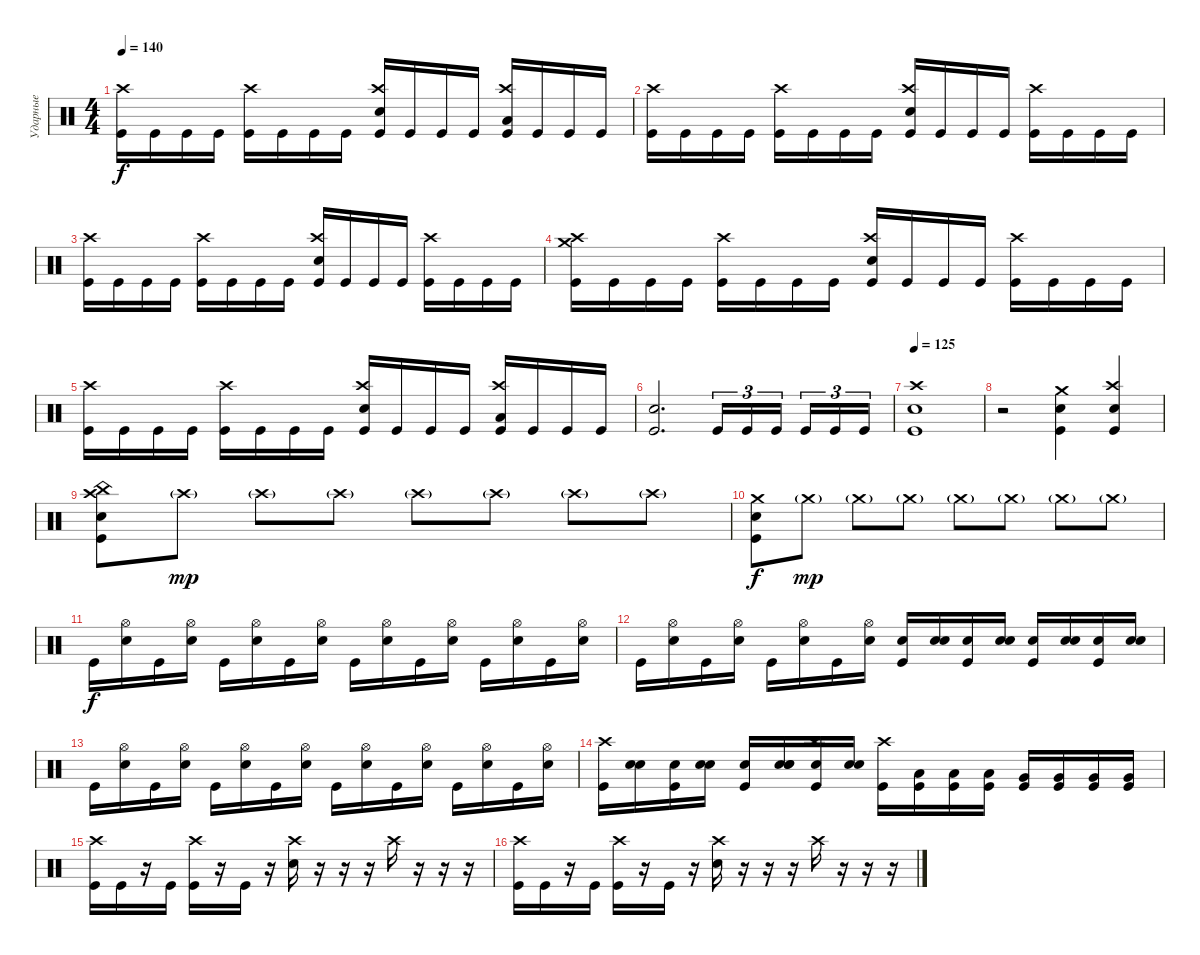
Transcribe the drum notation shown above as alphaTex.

\track ("Ударные" "Ударные") {instrument percussion}
\staff {score}
\articulation defaults
\ts (4 4)
\tempo 140
\clef neutral
\ks c
("Kick (hit)" "Crash high (hit)").16{dy f} "Kick (hit)".16 "Kick (hit)".16 "Kick (hit)".16 ("Kick (hit)" "Crash high (hit)").16 "Kick (hit)".16 "Kick (hit)".16 "Kick (hit)".16 ("Kick (hit)" "Snare (hit) 2" "Crash high (hit)").16 "Kick (hit)".16 "Kick (hit)".16 "Kick (hit)".16 ("Kick (hit)" "Crash high (hit)" "Low Tom (hit)").16 "Kick (hit)".16 "Kick (hit)".16 "Kick (hit)".16 |
("Kick (hit)" "Crash high (hit)").16 "Kick (hit)".16 "Kick (hit)".16 "Kick (hit)".16 ("Kick (hit)" "Crash high (hit)").16 "Kick (hit)".16 "Kick (hit)".16 "Kick (hit)".16 ("Kick (hit)" "Snare (hit) 2" "Crash high (hit)").16 "Kick (hit)".16 "Kick (hit)".16 "Kick (hit)".16 ("Kick (hit)" "Crash high (hit)").16 "Kick (hit)".16 "Kick (hit)".16 "Kick (hit)".16 |
("Kick (hit)" "Crash high (hit)").16 "Kick (hit)".16 "Kick (hit)".16 "Kick (hit)".16 ("Kick (hit)" "Crash high (hit)").16 "Kick (hit)".16 "Kick (hit)".16 "Kick (hit)".16 ("Kick (hit)" "Snare (hit) 2" "Crash high (hit)").16 "Kick (hit)".16 "Kick (hit)".16 "Kick (hit)".16 ("Kick (hit)" "Crash high (hit)").16 "Kick (hit)".16 "Kick (hit)".16 "Kick (hit)".16 |
("Kick (hit)" "Crash medium (hit)" "Crash high (hit)").16 "Kick (hit)".16 "Kick (hit)".16 "Kick (hit)".16 ("Kick (hit)" "Crash high (hit)").16 "Kick (hit)".16 "Kick (hit)".16 "Kick (hit)".16 ("Kick (hit)" "Snare (hit) 2" "Crash high (hit)").16 "Kick (hit)".16 "Kick (hit)".16 "Kick (hit)".16 ("Kick (hit)" "Crash high (hit)").16 "Kick (hit)".16 "Kick (hit)".16 "Kick (hit)".16 |
("Kick (hit)" "Crash high (hit)").16 "Kick (hit)".16 "Kick (hit)".16 "Kick (hit)".16 ("Kick (hit)" "Crash high (hit)").16 "Kick (hit)".16 "Kick (hit)".16 "Kick (hit)".16 ("Kick (hit)" "Snare (hit) 2" "Crash high (hit)").16 "Kick (hit)".16 "Kick (hit)".16 "Kick (hit)".16 ("Kick (hit)" "Crash high (hit)" "Low Tom (hit)").16 "Kick (hit)".16 "Kick (hit)".16 "Kick (hit)".16 |
("Kick (hit)" "Snare (hit) 2").2{d} "Kick (hit)".16{tu (3 2)} "Kick (hit)".16{tu (3 2)} "Kick (hit)".16{tu (3 2) beam splitsecondary} "Kick (hit)".16{tu (3 2)} "Kick (hit)".16{tu (3 2)} "Kick (hit)".16{tu (3 2)} |
\tempo 125
("Snare (hit) 2" "Kick (hit)" "Crash high (hit)").1 |
r.2 ("Kick (hit)" "Snare (hit) 2" "Crash medium (hit)").4 ("Kick (hit)" "Snare (hit) 2" "Crash high (hit)").4 |
("Crash high (hit)" "Kick (hit)" "China (hit)" "Snare (hit) 2").8 "Crash high (hit)"{g}.8{dy mp} "Crash high (hit)"{g}.8 "Crash high (hit)"{g}.8 "Crash high (hit)"{g}.8 "Crash high (hit)"{g}.8 "Crash high (hit)"{g}.8 "Crash high (hit)"{g}.8 |
("Kick (hit)" "Snare (hit) 2" "Crash medium (hit)").8{dy f} "Crash medium (hit)"{g}.8{dy mp} "Crash medium (hit)"{g}.8 "Crash medium (hit)"{g}.8 "Crash medium (hit)"{g}.8 "Crash medium (hit)"{g}.8 "Crash medium (hit)"{g}.8 "Crash medium (hit)"{g}.8 |
"Kick (hit)".16{dy f} ("Snare (hit) 2" "Hi-Hat (open)").16 "Kick (hit)".16 ("Snare (hit) 2" "Hi-Hat (open)").16 "Kick (hit)".16 ("Snare (hit) 2" "Hi-Hat (open)").16 "Kick (hit)".16 ("Snare (hit) 2" "Hi-Hat (open)").16 "Kick (hit)".16 ("Snare (hit) 2" "Hi-Hat (open)").16 "Kick (hit)".16 ("Snare (hit) 2" "Hi-Hat (open)").16 "Kick (hit)".16 ("Snare (hit) 2" "Hi-Hat (open)").16 "Kick (hit)".16 ("Snare (hit) 2" "Hi-Hat (open)").16 |
"Kick (hit)".16 ("Snare (hit) 2" "Hi-Hat (open)").16 "Kick (hit)".16 ("Snare (hit) 2" "Hi-Hat (open)").16 "Kick (hit)".16 ("Snare (hit) 2" "Hi-Hat (open)").16 "Kick (hit)".16 ("Snare (hit) 2" "Hi-Hat (open)").16 ("Kick (hit)" "Snare (hit) 2").16 ("Snare (hit) 2" "Snare (hit) 2").16 ("Kick (hit)" "Snare (hit) 2").16 ("Snare (hit) 2" "Snare (hit) 2").16 ("Kick (hit)" "Snare (hit) 2").16 ("Snare (hit) 2" "Snare (hit) 2").16 ("Kick (hit)" "Snare (hit) 2").16 ("Snare (hit) 2" "Snare (hit) 2").16 |
"Kick (hit)".16 ("Snare (hit) 2" "Hi-Hat (open)").16 "Kick (hit)".16 ("Snare (hit) 2" "Hi-Hat (open)").16 "Kick (hit)".16 ("Snare (hit) 2" "Hi-Hat (open)").16 "Kick (hit)".16 ("Snare (hit) 2" "Hi-Hat (open)").16 "Kick (hit)".16 ("Snare (hit) 2" "Hi-Hat (open)").16 "Kick (hit)".16 ("Snare (hit) 2" "Hi-Hat (open)").16 "Kick (hit)".16 ("Snare (hit) 2" "Hi-Hat (open)").16 "Kick (hit)".16 ("Snare (hit) 2" "Hi-Hat (open)").16 |
("Kick (hit)" "Crash high (hit)").16 ("Snare (hit) 2" "Snare (hit) 2").16 ("Kick (hit)" "Snare (hit) 2").16 ("Snare (hit) 2" "Snare (hit) 2").16 ("Kick (hit)" "Snare (hit) 2").16 ("Snare (hit) 2" "Snare (hit) 2" "Snare (hit) 2").16 ("Kick (hit)" "Snare (hit) 2" "Crash high (hit)").16 ("Snare (hit) 2" "Snare (hit) 2").16 ("Kick (hit)" "Crash high (hit)").16 ("Kick (hit)" "Low Tom (hit)").16 ("Kick (hit)" "Low Tom (hit)").16 ("Kick (hit)" "Low Tom (hit)").16 ("Kick (hit)" "Very Low Tom (hit)").16 ("Kick (hit)" "Very Low Tom (hit)").16 ("Kick (hit)" "Very Low Tom (hit)").16 ("Kick (hit)" "Very Low Tom (hit)").16 |
("Kick (hit)" "Crash high (hit)").16 "Kick (hit)".16 r.16 "Kick (hit)".16 ("Kick (hit)" "Crash high (hit)").16 r.16 "Kick (hit)".16 r.16 ("Crash high (hit)" "Snare (hit) 2").16 r.16 r.16 r.16 "Crash high (hit)".16 r.16 r.16 r.16 |
("Kick (hit)" "Crash high (hit)").16 "Kick (hit)".16 r.16 "Kick (hit)".16 ("Kick (hit)" "Crash high (hit)").16 r.16 "Kick (hit)".16 r.16 ("Crash high (hit)" "Snare (hit) 2").16 r.16 r.16 r.16 "Crash high (hit)".16 r.16 r.16 r.16
